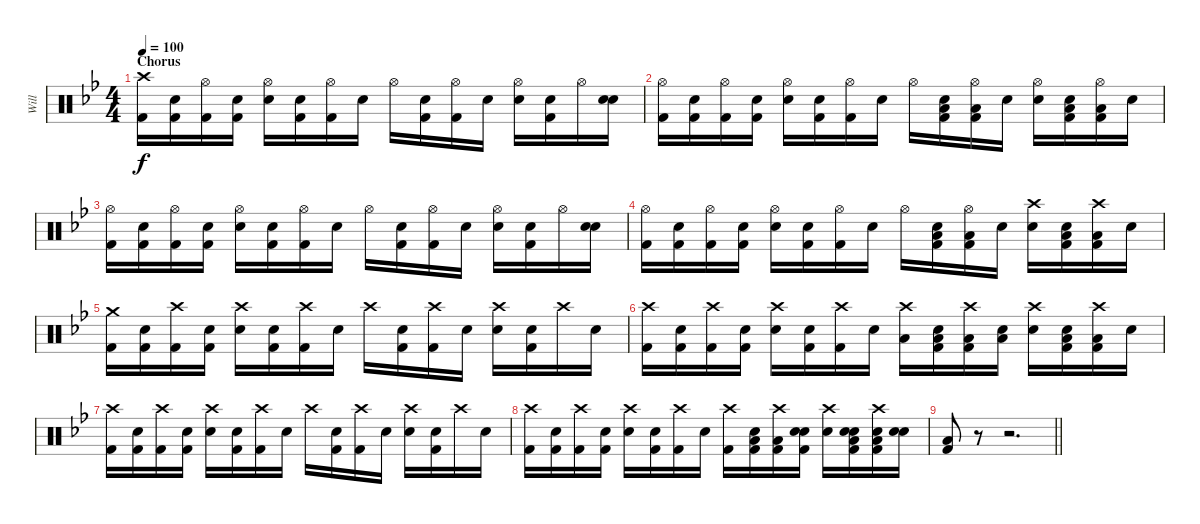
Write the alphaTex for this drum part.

\track ("Will" "Will") {instrument percussion}
\staff {score}
\articulation defaults
\ts (4 4)
\section ("" "Chorus")
\tempo 100
\clef neutral
\ks bb
("Crash high (hit)" "Kick (hit) 2").16{dy f} ("Snare (hit)" "Kick (hit) 2").16 ("Hi-Hat (open)" "Kick (hit) 2").16 ("Snare (hit)" "Kick (hit) 2").16 ("Hi-Hat (open)" "Electric Snare (hit)").16 ("Snare (hit)" "Kick (hit) 2").16 ("Hi-Hat (open)" "Kick (hit) 2").16 "Snare (hit)".16 "Hi-Hat (open)".16 ("Snare (hit)" "Kick (hit) 2").16 ("Hi-Hat (open)" "Kick (hit) 2").16 "Snare (hit)".16 ("Hi-Hat (open)" "Electric Snare (hit)").16 ("Snare (hit)" "Kick (hit) 2").16 "Hi-Hat (open)".16 ("Snare (hit)" "Electric Snare (hit)").16 |
("Hi-Hat (open)" "Kick (hit) 2").16 ("Snare (hit)" "Kick (hit) 2").16 ("Hi-Hat (open)" "Kick (hit) 2").16 ("Snare (hit)" "Kick (hit) 2").16 ("Hi-Hat (open)" "Electric Snare (hit)").16 ("Snare (hit)" "Kick (hit) 2").16 ("Hi-Hat (open)" "Kick (hit) 2").16 "Snare (hit)".16 "Hi-Hat (open)".16 ("Snare (hit)" "Low Tom (hit)" "Kick (hit) 2").16 ("Hi-Hat (open)" "Low Tom (hit)" "Kick (hit) 2").16 "Snare (hit)".16 ("Hi-Hat (open)" "Electric Snare (hit)").16 ("Snare (hit)" "Low Tom (hit)" "Kick (hit) 2").16 ("Hi-Hat (open)" "Low Tom (hit)" "Kick (hit) 2").16 "Snare (hit)".16 |
("Hi-Hat (open)" "Kick (hit) 2").16 ("Snare (hit)" "Kick (hit) 2").16 ("Hi-Hat (open)" "Kick (hit) 2").16 ("Snare (hit)" "Kick (hit) 2").16 ("Hi-Hat (open)" "Electric Snare (hit)").16 ("Snare (hit)" "Kick (hit) 2").16 ("Hi-Hat (open)" "Kick (hit) 2").16 "Snare (hit)".16 "Hi-Hat (open)".16 ("Snare (hit)" "Kick (hit) 2").16 ("Hi-Hat (open)" "Kick (hit) 2").16 "Snare (hit)".16 ("Hi-Hat (open)" "Electric Snare (hit)").16 ("Snare (hit)" "Kick (hit) 2").16 "Hi-Hat (open)".16 ("Snare (hit)" "Electric Snare (hit)").16 |
("Hi-Hat (open)" "Kick (hit) 2").16 ("Snare (hit)" "Kick (hit) 2").16 ("Hi-Hat (open)" "Kick (hit) 2").16 ("Snare (hit)" "Kick (hit) 2").16 ("Hi-Hat (open)" "Electric Snare (hit)").16 ("Snare (hit)" "Kick (hit) 2").16 ("Hi-Hat (open)" "Kick (hit) 2").16 "Snare (hit)".16 "Hi-Hat (open)".16 ("Snare (hit)" "Low Tom (hit)" "Kick (hit) 2").16 ("Hi-Hat (open)" "Low Tom (hit)" "Kick (hit) 2").16 "Snare (hit)".16 ("Crash high (hit)" "Electric Snare (hit)").16 ("Snare (hit)" "Low Tom (hit)" "Kick (hit) 2").16 ("Crash high (hit)" "Low Tom (hit)" "Kick (hit) 2").16 "Snare (hit)".16 |
("Crash medium (hit)" "Kick (hit) 2").16 ("Snare (hit)" "Kick (hit) 2").16 ("Crash high (hit)" "Kick (hit) 2").16 ("Snare (hit)" "Kick (hit) 2").16 ("Crash high (hit)" "Electric Snare (hit)").16 ("Snare (hit)" "Kick (hit) 2").16 ("Crash high (hit)" "Kick (hit) 2").16 "Snare (hit)".16 "Crash high (hit)".16 ("Snare (hit)" "Kick (hit) 2").16 ("Crash high (hit)" "Kick (hit) 2").16 "Snare (hit)".16 ("Crash high (hit)" "Electric Snare (hit)").16 ("Snare (hit)" "Kick (hit) 2").16 "Crash high (hit)".16 "Snare (hit)".16 |
("Crash high (hit)" "Kick (hit) 2").16 ("Snare (hit)" "Kick (hit) 2").16 ("Crash high (hit)" "Kick (hit) 2").16 ("Snare (hit)" "Kick (hit) 2").16 ("Crash high (hit)" "Electric Snare (hit)").16 ("Snare (hit)" "Kick (hit) 2").16 ("Crash high (hit)" "Kick (hit) 2").16 "Snare (hit)".16 ("Crash high (hit)" "Low Tom (hit)").16 ("Snare (hit)" "Low Tom (hit)" "Kick (hit) 2").16 ("Crash high (hit)" "Low Tom (hit)" "Kick (hit) 2").16 ("Snare (hit)" "Low Tom (hit)").16 ("Crash high (hit)" "Electric Snare (hit)").16 ("Snare (hit)" "Low Tom (hit)" "Kick (hit) 2").16 ("Crash high (hit)" "Low Tom (hit)" "Kick (hit) 2").16 "Snare (hit)".16 |
("Crash high (hit)" "Kick (hit) 2").16 ("Snare (hit)" "Kick (hit) 2").16 ("Crash high (hit)" "Kick (hit) 2").16 ("Snare (hit)" "Kick (hit) 2").16 ("Crash high (hit)" "Electric Snare (hit)").16 ("Snare (hit)" "Kick (hit) 2").16 ("Crash high (hit)" "Kick (hit) 2").16 "Snare (hit)".16 "Crash high (hit)".16 ("Snare (hit)" "Kick (hit) 2").16 ("Crash high (hit)" "Kick (hit) 2").16 "Snare (hit)".16 ("Crash high (hit)" "Electric Snare (hit)").16 ("Snare (hit)" "Kick (hit) 2").16 "Crash high (hit)".16 "Snare (hit)".16 |
("Crash high (hit)" "Kick (hit) 2").16 ("Snare (hit)" "Kick (hit) 2").16 ("Crash high (hit)" "Kick (hit) 2").16 ("Snare (hit)" "Kick (hit) 2").16 ("Crash high (hit)" "Electric Snare (hit)").16 ("Snare (hit)" "Kick (hit) 2").16 ("Crash high (hit)" "Kick (hit) 2").16 "Snare (hit)".16 ("Crash high (hit)" "Kick (hit) 2").16 ("Snare (hit)" "Low Tom (hit)" "Kick (hit) 2").16 ("Crash high (hit)" "Low Tom (hit)" "Kick (hit) 2").16 ("Snare (hit)" "Electric Snare (hit)" "Kick (hit) 2").16 ("Crash high (hit)" "Electric Snare (hit)").16 ("Snare (hit)" "Electric Snare (hit)" "Low Tom (hit)" "Kick (hit) 2").16 ("Crash high (hit)" "Electric Snare (hit)" "Low Tom (hit)" "Kick (hit) 2").16 ("Snare (hit)" "Electric Snare (hit)").16 |
\barLineRight lightlight
("Low Tom (hit)" "Kick (hit) 2").8 r.8 r.2{d}
